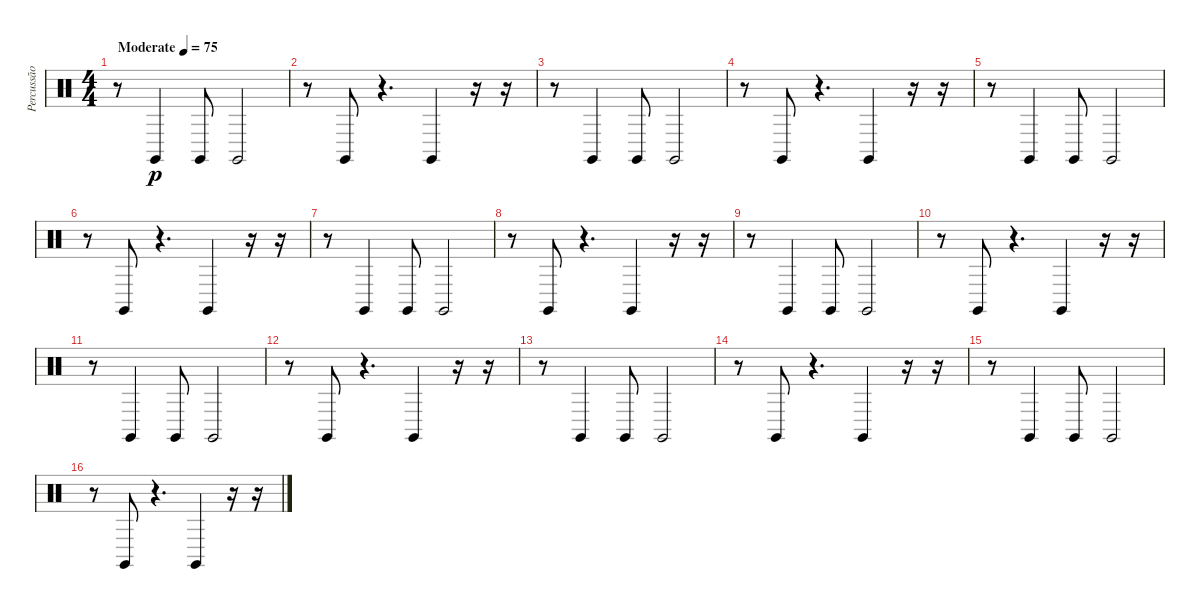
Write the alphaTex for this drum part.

\track ("Percussão" "Percussão") {instrument percussion}
\staff {score}
\articulation defaults
\ts (4 4)
\tempo (75 "Moderate")
\clef neutral
\ks c
r.8{dy p} "Claves (hit)".4 "Claves (hit)".8 "Claves (hit)".2 |
r.8 "Claves (hit)".8 r.4{d} "Claves (hit)".4 r.16 r.16 |
r.8 "Claves (hit)".4 "Claves (hit)".8 "Claves (hit)".2 |
r.8 "Claves (hit)".8 r.4{d} "Claves (hit)".4 r.16 r.16 |
r.8 "Claves (hit)".4 "Claves (hit)".8 "Claves (hit)".2 |
r.8 "Claves (hit)".8 r.4{d} "Claves (hit)".4 r.16 r.16 |
r.8 "Claves (hit)".4 "Claves (hit)".8 "Claves (hit)".2 |
r.8 "Claves (hit)".8 r.4{d} "Claves (hit)".4 r.16 r.16 |
r.8 "Claves (hit)".4 "Claves (hit)".8 "Claves (hit)".2 |
r.8 "Claves (hit)".8 r.4{d} "Claves (hit)".4 r.16 r.16 |
r.8 "Claves (hit)".4 "Claves (hit)".8 "Claves (hit)".2 |
r.8 "Claves (hit)".8 r.4{d} "Claves (hit)".4 r.16 r.16 |
r.8 "Claves (hit)".4 "Claves (hit)".8 "Claves (hit)".2 |
r.8 "Claves (hit)".8 r.4{d} "Claves (hit)".4 r.16 r.16 |
r.8 "Claves (hit)".4 "Claves (hit)".8 "Claves (hit)".2 |
r.8 "Claves (hit)".8 r.4{d} "Claves (hit)".4 r.16 r.16
